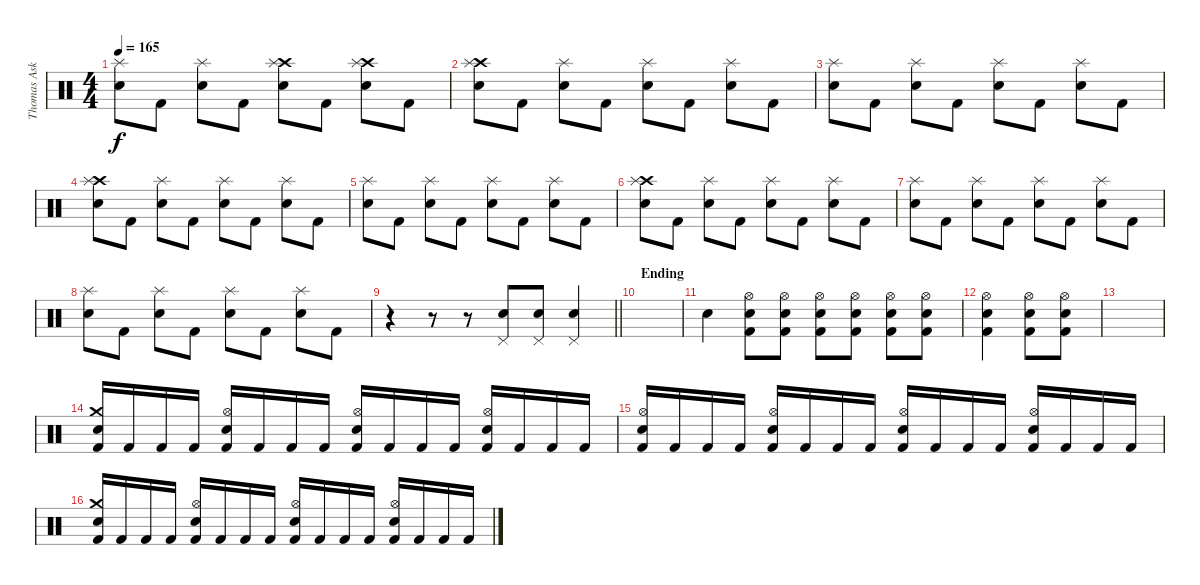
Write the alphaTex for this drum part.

\track ("Thomas Asklund" "Thomas Ask") {instrument percussion}
\staff {score}
\articulation defaults
\ts (4 4)
\tempo 165
\clef neutral
\ks c
("Splash (hit)" "Snare (hit) 2").8{dy f} "Kick (hit) 2".8 ("Splash (hit)" "Snare (hit) 2").8 "Kick (hit) 2".8 ("Crash high (hit)" "Splash (hit)" "Snare (hit) 2").8 "Kick (hit) 2".8 ("Crash high (hit)" "Splash (hit)" "Snare (hit) 2").8 "Kick (hit) 2".8 |
("Crash high (hit)" "Splash (hit)" "Snare (hit) 2").8 "Kick (hit) 2".8 ("Splash (hit)" "Snare (hit) 2").8 "Kick (hit) 2".8 ("Splash (hit)" "Snare (hit) 2").8 "Kick (hit) 2".8 ("Splash (hit)" "Snare (hit) 2").8 "Kick (hit) 2".8 |
("Splash (hit)" "Snare (hit) 2").8 "Kick (hit) 2".8 ("Splash (hit)" "Snare (hit) 2").8 "Kick (hit) 2".8 ("Splash (hit)" "Snare (hit) 2").8 "Kick (hit) 2".8 ("Splash (hit)" "Snare (hit) 2").8 "Kick (hit) 2".8 |
("Crash high (hit)" "Splash (hit)" "Snare (hit) 2").8 "Kick (hit) 2".8 ("Splash (hit)" "Snare (hit) 2").8 "Kick (hit) 2".8 ("Splash (hit)" "Snare (hit) 2").8 "Kick (hit) 2".8 ("Splash (hit)" "Snare (hit) 2").8 "Kick (hit) 2".8 |
("Splash (hit)" "Snare (hit) 2").8 "Kick (hit) 2".8 ("Splash (hit)" "Snare (hit) 2").8 "Kick (hit) 2".8 ("Splash (hit)" "Snare (hit) 2").8 "Kick (hit) 2".8 ("Splash (hit)" "Snare (hit) 2").8 "Kick (hit) 2".8 |
("Crash high (hit)" "Splash (hit)" "Snare (hit) 2").8 "Kick (hit) 2".8 ("Splash (hit)" "Snare (hit) 2").8 "Kick (hit) 2".8 ("Splash (hit)" "Snare (hit) 2").8 "Kick (hit) 2".8 ("Splash (hit)" "Snare (hit) 2").8 "Kick (hit) 2".8 |
("Splash (hit)" "Snare (hit) 2").8 "Kick (hit) 2".8 ("Splash (hit)" "Snare (hit) 2").8 "Kick (hit) 2".8 ("Splash (hit)" "Snare (hit) 2").8 "Kick (hit) 2".8 ("Splash (hit)" "Snare (hit) 2").8 "Kick (hit) 2".8 |
("Splash (hit)" "Snare (hit) 2").8 "Kick (hit) 2".8 ("Splash (hit)" "Snare (hit) 2").8 "Kick (hit) 2".8 ("Splash (hit)" "Snare (hit) 2").8 "Kick (hit) 2".8 ("Splash (hit)" "Snare (hit) 2").8 "Kick (hit) 2".8 |
\barLineRight lightlight
r.4 r.8 r.8 ("Pedal Hi-Hat (hit)" "Snare (hit) 2").8 ("Pedal Hi-Hat (hit)" "Snare (hit) 2").8 ("Pedal Hi-Hat (hit)" "Snare (hit) 2").4 |
\section ("" "Ending")
|
"Snare (hit)".4 ("Hi-Hat (open)" "Kick (hit) 2" "Snare (hit) 2").8 ("Hi-Hat (open)" "Kick (hit) 2" "Snare (hit) 2").8 ("Hi-Hat (open)" "Kick (hit) 2" "Snare (hit) 2").8 ("Hi-Hat (open)" "Kick (hit) 2" "Snare (hit) 2").8 ("Hi-Hat (open)" "Kick (hit) 2" "Snare (hit) 2").8 ("Hi-Hat (open)" "Kick (hit) 2" "Snare (hit) 2").8 |
("Hi-Hat (open)" "Kick (hit) 2" "Snare (hit) 2").4 ("Hi-Hat (open)" "Kick (hit) 2" "Snare (hit) 2").8 ("Hi-Hat (open)" "Kick (hit) 2" "Snare (hit) 2").8 |
|
("Crash medium (hit)" "Electric Snare (hit)" "Kick (hit) 2").16 "Kick (hit) 2".16 "Kick (hit) 2".16 "Kick (hit) 2".16 ("Hi-Hat (open)" "Electric Snare (hit)" "Kick (hit) 2").16 "Kick (hit) 2".16 "Kick (hit) 2".16 "Kick (hit) 2".16 ("Hi-Hat (open)" "Electric Snare (hit)" "Kick (hit) 2").16 "Kick (hit) 2".16 "Kick (hit) 2".16 "Kick (hit) 2".16 ("Hi-Hat (open)" "Electric Snare (hit)" "Kick (hit) 2").16 "Kick (hit) 2".16 "Kick (hit) 2".16 "Kick (hit) 2".16 |
("Hi-Hat (open)" "Electric Snare (hit)" "Kick (hit) 2").16 "Kick (hit) 2".16 "Kick (hit) 2".16 "Kick (hit) 2".16 ("Hi-Hat (open)" "Electric Snare (hit)" "Kick (hit) 2").16 "Kick (hit) 2".16 "Kick (hit) 2".16 "Kick (hit) 2".16 ("Hi-Hat (open)" "Electric Snare (hit)" "Kick (hit) 2").16 "Kick (hit) 2".16 "Kick (hit) 2".16 "Kick (hit) 2".16 ("Hi-Hat (open)" "Electric Snare (hit)" "Kick (hit) 2").16 "Kick (hit) 2".16 "Kick (hit) 2".16 "Kick (hit) 2".16 |
("Crash medium (hit)" "Electric Snare (hit)" "Kick (hit) 2").16 "Kick (hit) 2".16 "Kick (hit) 2".16 "Kick (hit) 2".16 ("Hi-Hat (open)" "Electric Snare (hit)" "Kick (hit) 2").16 "Kick (hit) 2".16 "Kick (hit) 2".16 "Kick (hit) 2".16 ("Hi-Hat (open)" "Electric Snare (hit)" "Kick (hit) 2").16 "Kick (hit) 2".16 "Kick (hit) 2".16 "Kick (hit) 2".16 ("Hi-Hat (open)" "Electric Snare (hit)" "Kick (hit) 2").16 "Kick (hit) 2".16 "Kick (hit) 2".16 "Kick (hit) 2".16
